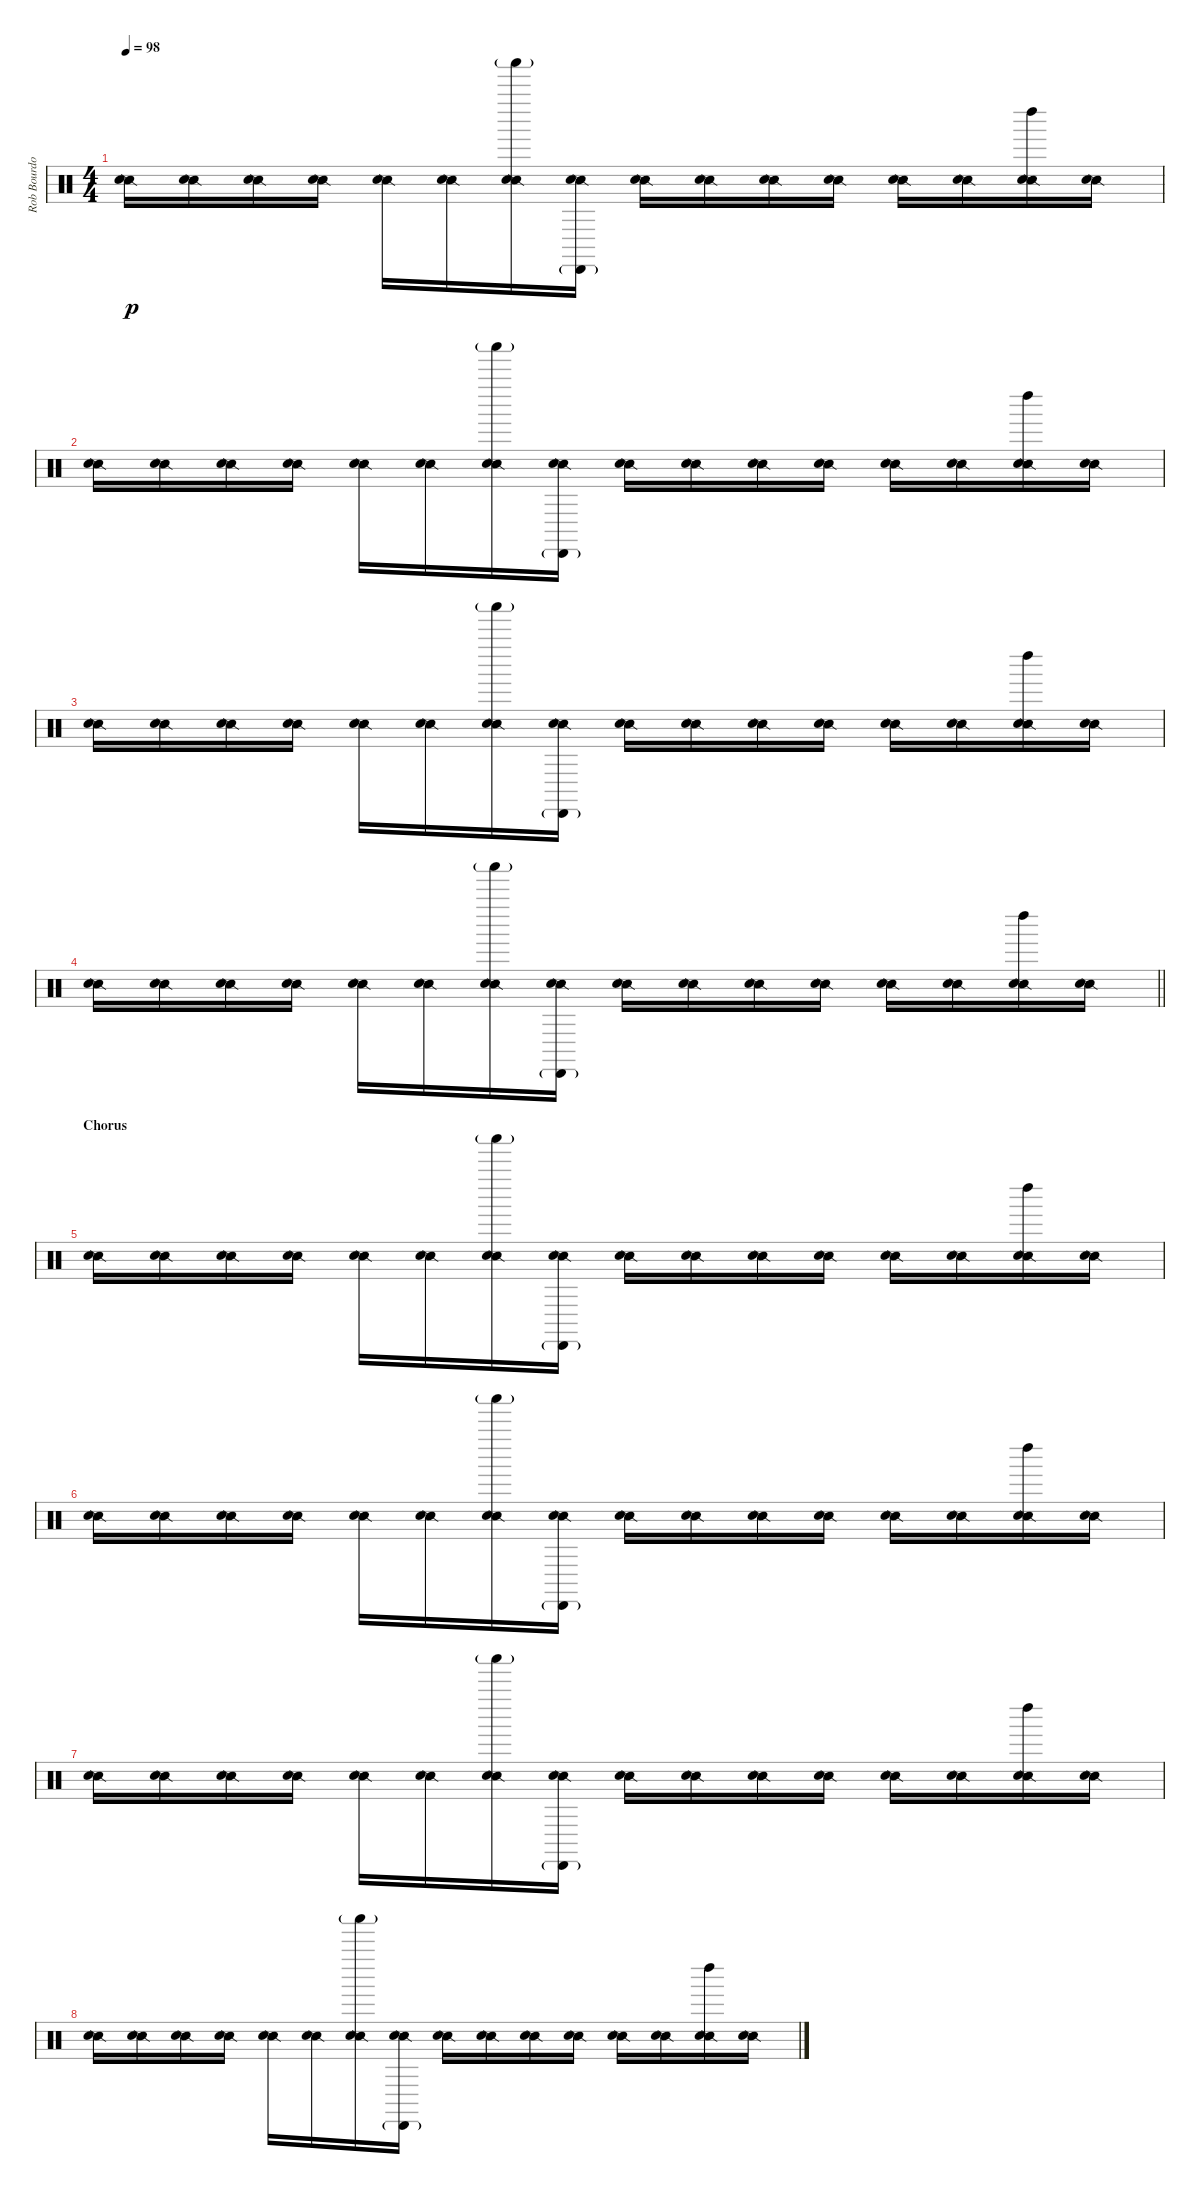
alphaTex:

\track ("Rob Bourdon (Drums)" "Rob Bourdo") {instrument percussion}
\staff {score}
\articulation defaults
\ts (4 4)
\tempo 98
\clef neutral
\ks c
("Snare (side stick) 2" "Hand Clap (hit)").16{dy p} ("Snare (side stick) 2" "Hand Clap (hit)").16 ("Snare (side stick) 2" "Hand Clap (hit)").16 ("Snare (side stick) 2" "Hand Clap (hit)").16 ("Snare (side stick) 2" "Hand Clap (hit)").16 ("Snare (side stick) 2" "Hand Clap (hit)").16 ("Shaker (hit)"{g} "Snare (side stick) 2" "Hand Clap (hit)").16 ("Cabasa (hit)"{g} "Snare (side stick) 2" "Hand Clap (hit)").16 ("Snare (side stick) 2" "Hand Clap (hit)").16 ("Snare (side stick) 2" "Hand Clap (hit)").16 ("Snare (side stick) 2" "Hand Clap (hit)").16 ("Snare (side stick) 2" "Hand Clap (hit)").16 ("Snare (side stick) 2" "Hand Clap (hit)").16 ("Snare (side stick) 2" "Hand Clap (hit)").16 ("Left Maraca (hit)" "Snare (side stick) 2" "Hand Clap (hit)").16 ("Snare (side stick) 2" "Hand Clap (hit)").16 |
("Snare (side stick) 2" "Hand Clap (hit)").16 ("Snare (side stick) 2" "Hand Clap (hit)").16 ("Snare (side stick) 2" "Hand Clap (hit)").16 ("Snare (side stick) 2" "Hand Clap (hit)").16 ("Snare (side stick) 2" "Hand Clap (hit)").16 ("Snare (side stick) 2" "Hand Clap (hit)").16 ("Shaker (hit)"{g} "Snare (side stick) 2" "Hand Clap (hit)").16 ("Cabasa (hit)"{g} "Snare (side stick) 2" "Hand Clap (hit)").16 ("Snare (side stick) 2" "Hand Clap (hit)").16 ("Snare (side stick) 2" "Hand Clap (hit)").16 ("Snare (side stick) 2" "Hand Clap (hit)").16 ("Snare (side stick) 2" "Hand Clap (hit)").16 ("Snare (side stick) 2" "Hand Clap (hit)").16 ("Snare (side stick) 2" "Hand Clap (hit)").16 ("Left Maraca (hit)" "Snare (side stick) 2" "Hand Clap (hit)").16 ("Snare (side stick) 2" "Hand Clap (hit)").16 |
("Snare (side stick) 2" "Hand Clap (hit)").16 ("Snare (side stick) 2" "Hand Clap (hit)").16 ("Snare (side stick) 2" "Hand Clap (hit)").16 ("Snare (side stick) 2" "Hand Clap (hit)").16 ("Snare (side stick) 2" "Hand Clap (hit)").16 ("Snare (side stick) 2" "Hand Clap (hit)").16 ("Shaker (hit)"{g} "Snare (side stick) 2" "Hand Clap (hit)").16 ("Cabasa (hit)"{g} "Snare (side stick) 2" "Hand Clap (hit)").16 ("Snare (side stick) 2" "Hand Clap (hit)").16 ("Snare (side stick) 2" "Hand Clap (hit)").16 ("Snare (side stick) 2" "Hand Clap (hit)").16 ("Snare (side stick) 2" "Hand Clap (hit)").16 ("Snare (side stick) 2" "Hand Clap (hit)").16 ("Snare (side stick) 2" "Hand Clap (hit)").16 ("Left Maraca (hit)" "Snare (side stick) 2" "Hand Clap (hit)").16 ("Snare (side stick) 2" "Hand Clap (hit)").16 |
\barLineRight lightlight
("Snare (side stick) 2" "Hand Clap (hit)").16 ("Snare (side stick) 2" "Hand Clap (hit)").16 ("Snare (side stick) 2" "Hand Clap (hit)").16 ("Snare (side stick) 2" "Hand Clap (hit)").16 ("Snare (side stick) 2" "Hand Clap (hit)").16 ("Snare (side stick) 2" "Hand Clap (hit)").16 ("Shaker (hit)"{g} "Snare (side stick) 2" "Hand Clap (hit)").16 ("Cabasa (hit)"{g} "Snare (side stick) 2" "Hand Clap (hit)").16 ("Snare (side stick) 2" "Hand Clap (hit)").16 ("Snare (side stick) 2" "Hand Clap (hit)").16 ("Snare (side stick) 2" "Hand Clap (hit)").16 ("Snare (side stick) 2" "Hand Clap (hit)").16 ("Snare (side stick) 2" "Hand Clap (hit)").16 ("Snare (side stick) 2" "Hand Clap (hit)").16 ("Left Maraca (hit)" "Snare (side stick) 2" "Hand Clap (hit)").16 ("Snare (side stick) 2" "Hand Clap (hit)").16 |
\section ("" "Chorus")
("Snare (side stick) 2" "Hand Clap (hit)").16 ("Snare (side stick) 2" "Hand Clap (hit)").16 ("Snare (side stick) 2" "Hand Clap (hit)").16 ("Snare (side stick) 2" "Hand Clap (hit)").16 ("Snare (side stick) 2" "Hand Clap (hit)").16 ("Snare (side stick) 2" "Hand Clap (hit)").16 ("Shaker (hit)"{g} "Snare (side stick) 2" "Hand Clap (hit)").16 ("Cabasa (hit)"{g} "Snare (side stick) 2" "Hand Clap (hit)").16 ("Snare (side stick) 2" "Hand Clap (hit)").16 ("Snare (side stick) 2" "Hand Clap (hit)").16 ("Snare (side stick) 2" "Hand Clap (hit)").16 ("Snare (side stick) 2" "Hand Clap (hit)").16 ("Snare (side stick) 2" "Hand Clap (hit)").16 ("Snare (side stick) 2" "Hand Clap (hit)").16 ("Left Maraca (hit)" "Snare (side stick) 2" "Hand Clap (hit)").16 ("Snare (side stick) 2" "Hand Clap (hit)").16 |
("Snare (side stick) 2" "Hand Clap (hit)").16 ("Snare (side stick) 2" "Hand Clap (hit)").16 ("Snare (side stick) 2" "Hand Clap (hit)").16 ("Snare (side stick) 2" "Hand Clap (hit)").16 ("Snare (side stick) 2" "Hand Clap (hit)").16 ("Snare (side stick) 2" "Hand Clap (hit)").16 ("Shaker (hit)"{g} "Snare (side stick) 2" "Hand Clap (hit)").16 ("Cabasa (hit)"{g} "Snare (side stick) 2" "Hand Clap (hit)").16 ("Snare (side stick) 2" "Hand Clap (hit)").16 ("Snare (side stick) 2" "Hand Clap (hit)").16 ("Snare (side stick) 2" "Hand Clap (hit)").16 ("Snare (side stick) 2" "Hand Clap (hit)").16 ("Snare (side stick) 2" "Hand Clap (hit)").16 ("Snare (side stick) 2" "Hand Clap (hit)").16 ("Left Maraca (hit)" "Snare (side stick) 2" "Hand Clap (hit)").16 ("Snare (side stick) 2" "Hand Clap (hit)").16 |
("Snare (side stick) 2" "Hand Clap (hit)").16 ("Snare (side stick) 2" "Hand Clap (hit)").16 ("Snare (side stick) 2" "Hand Clap (hit)").16 ("Snare (side stick) 2" "Hand Clap (hit)").16 ("Snare (side stick) 2" "Hand Clap (hit)").16 ("Snare (side stick) 2" "Hand Clap (hit)").16 ("Shaker (hit)"{g} "Snare (side stick) 2" "Hand Clap (hit)").16 ("Cabasa (hit)"{g} "Snare (side stick) 2" "Hand Clap (hit)").16 ("Snare (side stick) 2" "Hand Clap (hit)").16 ("Snare (side stick) 2" "Hand Clap (hit)").16 ("Snare (side stick) 2" "Hand Clap (hit)").16 ("Snare (side stick) 2" "Hand Clap (hit)").16 ("Snare (side stick) 2" "Hand Clap (hit)").16 ("Snare (side stick) 2" "Hand Clap (hit)").16 ("Left Maraca (hit)" "Snare (side stick) 2" "Hand Clap (hit)").16 ("Snare (side stick) 2" "Hand Clap (hit)").16 |
("Snare (side stick) 2" "Hand Clap (hit)").16 ("Snare (side stick) 2" "Hand Clap (hit)").16 ("Snare (side stick) 2" "Hand Clap (hit)").16 ("Snare (side stick) 2" "Hand Clap (hit)").16 ("Snare (side stick) 2" "Hand Clap (hit)").16 ("Snare (side stick) 2" "Hand Clap (hit)").16 ("Shaker (hit)"{g} "Snare (side stick) 2" "Hand Clap (hit)").16 ("Cabasa (hit)"{g} "Snare (side stick) 2" "Hand Clap (hit)").16 ("Snare (side stick) 2" "Hand Clap (hit)").16 ("Snare (side stick) 2" "Hand Clap (hit)").16 ("Snare (side stick) 2" "Hand Clap (hit)").16 ("Snare (side stick) 2" "Hand Clap (hit)").16 ("Snare (side stick) 2" "Hand Clap (hit)").16 ("Snare (side stick) 2" "Hand Clap (hit)").16 ("Left Maraca (hit)" "Snare (side stick) 2" "Hand Clap (hit)").16 ("Snare (side stick) 2" "Hand Clap (hit)").16
